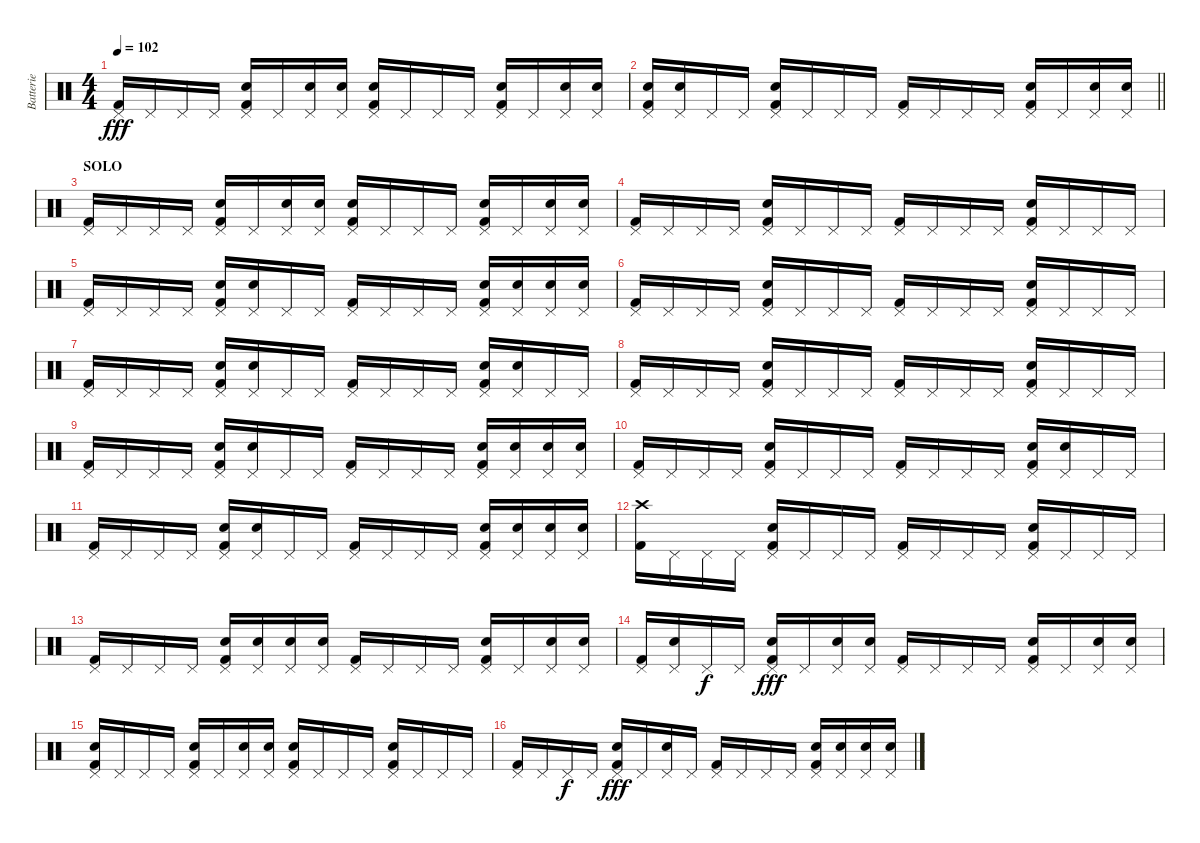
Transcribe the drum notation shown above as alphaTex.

\track ("Batterie" "Batterie") {instrument percussion}
\staff {score}
\articulation defaults
\ts (4 4)
\tempo 102
\clef neutral
\ks c
("Pedal Hi-Hat (hit)" "Kick (hit) 2").16{dy fff} "Pedal Hi-Hat (hit)".16 "Pedal Hi-Hat (hit)".16 "Pedal Hi-Hat (hit)".16 ("Pedal Hi-Hat (hit)" "Electric Snare (hit)" "Kick (hit) 2").16 "Pedal Hi-Hat (hit)".16 ("Pedal Hi-Hat (hit)" "Electric Snare (hit)").16 ("Pedal Hi-Hat (hit)" "Electric Snare (hit)").16 ("Pedal Hi-Hat (hit)" "Electric Snare (hit)" "Kick (hit) 2").16 "Pedal Hi-Hat (hit)".16 "Pedal Hi-Hat (hit)".16 "Pedal Hi-Hat (hit)".16 ("Pedal Hi-Hat (hit)" "Electric Snare (hit)" "Kick (hit) 2").16 "Pedal Hi-Hat (hit)".16 ("Pedal Hi-Hat (hit)" "Electric Snare (hit)").16 ("Pedal Hi-Hat (hit)" "Electric Snare (hit)").16 |
\barLineRight lightlight
("Pedal Hi-Hat (hit)" "Electric Snare (hit)" "Kick (hit) 2").16 ("Pedal Hi-Hat (hit)" "Electric Snare (hit)").16 "Pedal Hi-Hat (hit)".16 "Pedal Hi-Hat (hit)".16 ("Pedal Hi-Hat (hit)" "Electric Snare (hit)" "Kick (hit) 2").16 "Pedal Hi-Hat (hit)".16 "Pedal Hi-Hat (hit)".16 "Pedal Hi-Hat (hit)".16 ("Pedal Hi-Hat (hit)" "Kick (hit) 2").16 "Pedal Hi-Hat (hit)".16 "Pedal Hi-Hat (hit)".16 "Pedal Hi-Hat (hit)".16 ("Pedal Hi-Hat (hit)" "Electric Snare (hit)" "Kick (hit) 2").16 "Pedal Hi-Hat (hit)".16 ("Pedal Hi-Hat (hit)" "Electric Snare (hit)").16 ("Pedal Hi-Hat (hit)" "Electric Snare (hit)").16 |
\section ("" "SOLO")
("Pedal Hi-Hat (hit)" "Kick (hit) 2").16 "Pedal Hi-Hat (hit)".16 "Pedal Hi-Hat (hit)".16 "Pedal Hi-Hat (hit)".16 ("Pedal Hi-Hat (hit)" "Electric Snare (hit)" "Kick (hit) 2").16 "Pedal Hi-Hat (hit)".16 ("Pedal Hi-Hat (hit)" "Electric Snare (hit)").16 ("Pedal Hi-Hat (hit)" "Electric Snare (hit)").16 ("Pedal Hi-Hat (hit)" "Electric Snare (hit)" "Kick (hit) 2").16 "Pedal Hi-Hat (hit)".16 "Pedal Hi-Hat (hit)".16 "Pedal Hi-Hat (hit)".16 ("Pedal Hi-Hat (hit)" "Electric Snare (hit)" "Kick (hit) 2").16 "Pedal Hi-Hat (hit)".16 ("Pedal Hi-Hat (hit)" "Electric Snare (hit)").16 ("Pedal Hi-Hat (hit)" "Electric Snare (hit)").16 |
("Pedal Hi-Hat (hit)" "Kick (hit) 2").16 "Pedal Hi-Hat (hit)".16 "Pedal Hi-Hat (hit)".16 "Pedal Hi-Hat (hit)".16 ("Pedal Hi-Hat (hit)" "Electric Snare (hit)" "Kick (hit) 2").16 "Pedal Hi-Hat (hit)".16 "Pedal Hi-Hat (hit)".16 "Pedal Hi-Hat (hit)".16 ("Pedal Hi-Hat (hit)" "Kick (hit) 2").16 "Pedal Hi-Hat (hit)".16 "Pedal Hi-Hat (hit)".16 "Pedal Hi-Hat (hit)".16 ("Pedal Hi-Hat (hit)" "Electric Snare (hit)" "Kick (hit) 2").16 "Pedal Hi-Hat (hit)".16 "Pedal Hi-Hat (hit)".16 "Pedal Hi-Hat (hit)".16 |
("Pedal Hi-Hat (hit)" "Kick (hit) 2").16 "Pedal Hi-Hat (hit)".16 "Pedal Hi-Hat (hit)".16 "Pedal Hi-Hat (hit)".16 ("Pedal Hi-Hat (hit)" "Electric Snare (hit)" "Kick (hit) 2").16 ("Pedal Hi-Hat (hit)" "Electric Snare (hit)").16 "Pedal Hi-Hat (hit)".16 "Pedal Hi-Hat (hit)".16 ("Pedal Hi-Hat (hit)" "Kick (hit) 2").16 "Pedal Hi-Hat (hit)".16 "Pedal Hi-Hat (hit)".16 "Pedal Hi-Hat (hit)".16 ("Pedal Hi-Hat (hit)" "Electric Snare (hit)" "Kick (hit) 2").16 ("Pedal Hi-Hat (hit)" "Electric Snare (hit)").16 ("Pedal Hi-Hat (hit)" "Electric Snare (hit)").16 ("Pedal Hi-Hat (hit)" "Electric Snare (hit)").16 |
("Pedal Hi-Hat (hit)" "Kick (hit) 2").16 "Pedal Hi-Hat (hit)".16 "Pedal Hi-Hat (hit)".16 "Pedal Hi-Hat (hit)".16 ("Pedal Hi-Hat (hit)" "Electric Snare (hit)" "Kick (hit) 2").16 "Pedal Hi-Hat (hit)".16 "Pedal Hi-Hat (hit)".16 "Pedal Hi-Hat (hit)".16 ("Pedal Hi-Hat (hit)" "Kick (hit) 2").16 "Pedal Hi-Hat (hit)".16 "Pedal Hi-Hat (hit)".16 "Pedal Hi-Hat (hit)".16 ("Pedal Hi-Hat (hit)" "Electric Snare (hit)" "Kick (hit) 2").16 "Pedal Hi-Hat (hit)".16 "Pedal Hi-Hat (hit)".16 "Pedal Hi-Hat (hit)".16 |
("Pedal Hi-Hat (hit)" "Kick (hit) 2").16 "Pedal Hi-Hat (hit)".16 "Pedal Hi-Hat (hit)".16 "Pedal Hi-Hat (hit)".16 ("Pedal Hi-Hat (hit)" "Electric Snare (hit)" "Kick (hit) 2").16 ("Pedal Hi-Hat (hit)" "Electric Snare (hit)").16 "Pedal Hi-Hat (hit)".16 "Pedal Hi-Hat (hit)".16 ("Pedal Hi-Hat (hit)" "Kick (hit) 2").16 "Pedal Hi-Hat (hit)".16 "Pedal Hi-Hat (hit)".16 "Pedal Hi-Hat (hit)".16 ("Pedal Hi-Hat (hit)" "Electric Snare (hit)" "Kick (hit) 2").16 ("Pedal Hi-Hat (hit)" "Electric Snare (hit)").16 "Pedal Hi-Hat (hit)".16 "Pedal Hi-Hat (hit)".16 |
("Pedal Hi-Hat (hit)" "Kick (hit) 2").16 "Pedal Hi-Hat (hit)".16 "Pedal Hi-Hat (hit)".16 "Pedal Hi-Hat (hit)".16 ("Pedal Hi-Hat (hit)" "Electric Snare (hit)" "Kick (hit) 2").16 "Pedal Hi-Hat (hit)".16 "Pedal Hi-Hat (hit)".16 "Pedal Hi-Hat (hit)".16 ("Pedal Hi-Hat (hit)" "Kick (hit) 2").16 "Pedal Hi-Hat (hit)".16 "Pedal Hi-Hat (hit)".16 "Pedal Hi-Hat (hit)".16 ("Pedal Hi-Hat (hit)" "Electric Snare (hit)" "Kick (hit) 2").16 "Pedal Hi-Hat (hit)".16 "Pedal Hi-Hat (hit)".16 "Pedal Hi-Hat (hit)".16 |
("Pedal Hi-Hat (hit)" "Kick (hit) 2").16 "Pedal Hi-Hat (hit)".16 "Pedal Hi-Hat (hit)".16 "Pedal Hi-Hat (hit)".16 ("Pedal Hi-Hat (hit)" "Electric Snare (hit)" "Kick (hit) 2").16 ("Pedal Hi-Hat (hit)" "Electric Snare (hit)").16 "Pedal Hi-Hat (hit)".16 "Pedal Hi-Hat (hit)".16 ("Pedal Hi-Hat (hit)" "Kick (hit) 2").16 "Pedal Hi-Hat (hit)".16 "Pedal Hi-Hat (hit)".16 "Pedal Hi-Hat (hit)".16 ("Pedal Hi-Hat (hit)" "Electric Snare (hit)" "Kick (hit) 2").16 ("Pedal Hi-Hat (hit)" "Electric Snare (hit)").16 ("Pedal Hi-Hat (hit)" "Electric Snare (hit)").16 ("Pedal Hi-Hat (hit)" "Electric Snare (hit)").16 |
("Pedal Hi-Hat (hit)" "Kick (hit) 2").16 "Pedal Hi-Hat (hit)".16 "Pedal Hi-Hat (hit)".16 "Pedal Hi-Hat (hit)".16 ("Pedal Hi-Hat (hit)" "Electric Snare (hit)" "Kick (hit) 2").16 "Pedal Hi-Hat (hit)".16 "Pedal Hi-Hat (hit)".16 "Pedal Hi-Hat (hit)".16 ("Pedal Hi-Hat (hit)" "Kick (hit) 2").16 "Pedal Hi-Hat (hit)".16 "Pedal Hi-Hat (hit)".16 "Pedal Hi-Hat (hit)".16 ("Pedal Hi-Hat (hit)" "Electric Snare (hit)" "Kick (hit) 2").16 ("Pedal Hi-Hat (hit)" "Electric Snare (hit)").16 "Pedal Hi-Hat (hit)".16 "Pedal Hi-Hat (hit)".16 |
("Pedal Hi-Hat (hit)" "Kick (hit) 2").16 "Pedal Hi-Hat (hit)".16 "Pedal Hi-Hat (hit)".16 "Pedal Hi-Hat (hit)".16 ("Pedal Hi-Hat (hit)" "Electric Snare (hit)" "Kick (hit) 2").16 ("Pedal Hi-Hat (hit)" "Electric Snare (hit)").16 "Pedal Hi-Hat (hit)".16 "Pedal Hi-Hat (hit)".16 ("Pedal Hi-Hat (hit)" "Kick (hit) 2").16 "Pedal Hi-Hat (hit)".16 "Pedal Hi-Hat (hit)".16 "Pedal Hi-Hat (hit)".16 ("Pedal Hi-Hat (hit)" "Electric Snare (hit)" "Kick (hit) 2").16 ("Pedal Hi-Hat (hit)" "Electric Snare (hit)").16 ("Pedal Hi-Hat (hit)" "Electric Snare (hit)").16 ("Pedal Hi-Hat (hit)" "Electric Snare (hit)").16 |
("Crash high (hit)" "Kick (hit) 2").16 "Pedal Hi-Hat (hit)".16 "Pedal Hi-Hat (hit)".16 "Pedal Hi-Hat (hit)".16 ("Pedal Hi-Hat (hit)" "Electric Snare (hit)" "Kick (hit) 2").16 "Pedal Hi-Hat (hit)".16 "Pedal Hi-Hat (hit)".16 "Pedal Hi-Hat (hit)".16 ("Pedal Hi-Hat (hit)" "Kick (hit) 2").16 "Pedal Hi-Hat (hit)".16 "Pedal Hi-Hat (hit)".16 "Pedal Hi-Hat (hit)".16 ("Pedal Hi-Hat (hit)" "Electric Snare (hit)" "Kick (hit) 2").16 "Pedal Hi-Hat (hit)".16 "Pedal Hi-Hat (hit)".16 "Pedal Hi-Hat (hit)".16 |
("Pedal Hi-Hat (hit)" "Kick (hit) 2").16 "Pedal Hi-Hat (hit)".16 "Pedal Hi-Hat (hit)".16 "Pedal Hi-Hat (hit)".16 ("Pedal Hi-Hat (hit)" "Electric Snare (hit)" "Kick (hit) 2").16 ("Pedal Hi-Hat (hit)" "Electric Snare (hit)").16 ("Pedal Hi-Hat (hit)" "Electric Snare (hit)").16 ("Pedal Hi-Hat (hit)" "Electric Snare (hit)").16 ("Pedal Hi-Hat (hit)" "Kick (hit) 2").16 "Pedal Hi-Hat (hit)".16 "Pedal Hi-Hat (hit)".16 "Pedal Hi-Hat (hit)".16 ("Pedal Hi-Hat (hit)" "Electric Snare (hit)" "Kick (hit) 2").16 "Pedal Hi-Hat (hit)".16 ("Pedal Hi-Hat (hit)" "Electric Snare (hit)").16 ("Pedal Hi-Hat (hit)" "Electric Snare (hit)").16 |
("Pedal Hi-Hat (hit)" "Kick (hit) 2").16 ("Pedal Hi-Hat (hit)" "Electric Snare (hit)").16 "Pedal Hi-Hat (hit)".16{dy f} "Pedal Hi-Hat (hit)".16 ("Pedal Hi-Hat (hit)" "Electric Snare (hit)" "Kick (hit) 2").16{dy fff} "Pedal Hi-Hat (hit)".16 ("Pedal Hi-Hat (hit)" "Electric Snare (hit)").16 ("Pedal Hi-Hat (hit)" "Electric Snare (hit)").16 ("Pedal Hi-Hat (hit)" "Kick (hit) 2").16 "Pedal Hi-Hat (hit)".16 "Pedal Hi-Hat (hit)".16 "Pedal Hi-Hat (hit)".16 ("Pedal Hi-Hat (hit)" "Electric Snare (hit)" "Kick (hit) 2").16 "Pedal Hi-Hat (hit)".16 ("Pedal Hi-Hat (hit)" "Electric Snare (hit)").16 ("Pedal Hi-Hat (hit)" "Electric Snare (hit)").16 |
("Pedal Hi-Hat (hit)" "Electric Snare (hit)" "Kick (hit) 2").16 "Pedal Hi-Hat (hit)".16 "Pedal Hi-Hat (hit)".16 "Pedal Hi-Hat (hit)".16 ("Pedal Hi-Hat (hit)" "Electric Snare (hit)" "Kick (hit) 2").16 "Pedal Hi-Hat (hit)".16 ("Pedal Hi-Hat (hit)" "Electric Snare (hit)").16 ("Pedal Hi-Hat (hit)" "Electric Snare (hit)").16 ("Pedal Hi-Hat (hit)" "Electric Snare (hit)" "Kick (hit) 2").16 "Pedal Hi-Hat (hit)".16 "Pedal Hi-Hat (hit)".16 "Pedal Hi-Hat (hit)".16 ("Pedal Hi-Hat (hit)" "Electric Snare (hit)" "Kick (hit) 2").16 "Pedal Hi-Hat (hit)".16 "Pedal Hi-Hat (hit)".16 "Pedal Hi-Hat (hit)".16 |
("Pedal Hi-Hat (hit)" "Kick (hit) 2").16 "Pedal Hi-Hat (hit)".16 "Pedal Hi-Hat (hit)".16{dy f} "Pedal Hi-Hat (hit)".16 ("Pedal Hi-Hat (hit)" "Electric Snare (hit)" "Kick (hit) 2").16{dy fff} "Pedal Hi-Hat (hit)".16 ("Pedal Hi-Hat (hit)" "Electric Snare (hit)").16 "Pedal Hi-Hat (hit)".16 ("Pedal Hi-Hat (hit)" "Kick (hit) 2").16 "Pedal Hi-Hat (hit)".16 "Pedal Hi-Hat (hit)".16 "Pedal Hi-Hat (hit)".16 ("Pedal Hi-Hat (hit)" "Electric Snare (hit)" "Kick (hit) 2").16 ("Pedal Hi-Hat (hit)" "Electric Snare (hit)").16 ("Pedal Hi-Hat (hit)" "Electric Snare (hit)").16 ("Pedal Hi-Hat (hit)" "Electric Snare (hit)").16
